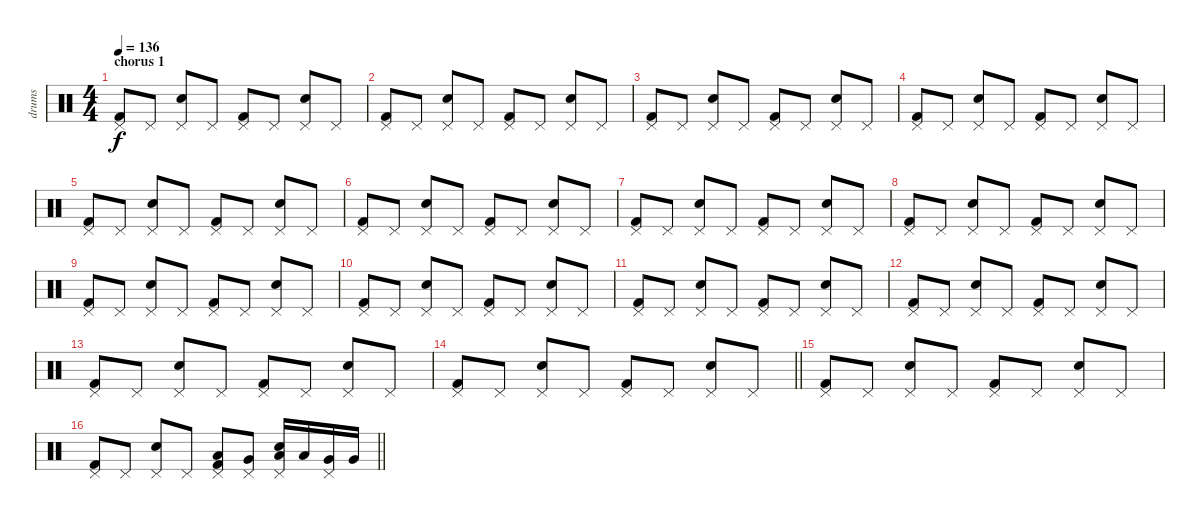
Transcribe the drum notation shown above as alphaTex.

\track ("drums" "drums") {instrument percussion}
\staff {score}
\articulation defaults
\ts (4 4)
\section ("" "chorus 1")
\tempo 136
\clef neutral
\ks c
("Kick (hit) 2" "Pedal Hi-Hat (hit)").8{dy f} "Pedal Hi-Hat (hit)".8 ("Electric Snare (hit)" "Pedal Hi-Hat (hit)").8 "Pedal Hi-Hat (hit)".8 ("Kick (hit) 2" "Pedal Hi-Hat (hit)").8 "Pedal Hi-Hat (hit)".8 ("Electric Snare (hit)" "Pedal Hi-Hat (hit)").8 "Pedal Hi-Hat (hit)".8 |
("Kick (hit) 2" "Pedal Hi-Hat (hit)").8 "Pedal Hi-Hat (hit)".8 ("Electric Snare (hit)" "Pedal Hi-Hat (hit)").8 "Pedal Hi-Hat (hit)".8 ("Kick (hit) 2" "Pedal Hi-Hat (hit)").8 "Pedal Hi-Hat (hit)".8 ("Electric Snare (hit)" "Pedal Hi-Hat (hit)").8 "Pedal Hi-Hat (hit)".8 |
("Kick (hit) 2" "Pedal Hi-Hat (hit)").8 "Pedal Hi-Hat (hit)".8 ("Electric Snare (hit)" "Pedal Hi-Hat (hit)").8 "Pedal Hi-Hat (hit)".8 ("Kick (hit) 2" "Pedal Hi-Hat (hit)").8 "Pedal Hi-Hat (hit)".8 ("Electric Snare (hit)" "Pedal Hi-Hat (hit)").8 "Pedal Hi-Hat (hit)".8 |
("Kick (hit) 2" "Pedal Hi-Hat (hit)").8 "Pedal Hi-Hat (hit)".8 ("Electric Snare (hit)" "Pedal Hi-Hat (hit)").8 "Pedal Hi-Hat (hit)".8 ("Kick (hit) 2" "Pedal Hi-Hat (hit)").8 "Pedal Hi-Hat (hit)".8 ("Electric Snare (hit)" "Pedal Hi-Hat (hit)").8 "Pedal Hi-Hat (hit)".8 |
("Kick (hit) 2" "Pedal Hi-Hat (hit)").8 "Pedal Hi-Hat (hit)".8 ("Electric Snare (hit)" "Pedal Hi-Hat (hit)").8 "Pedal Hi-Hat (hit)".8 ("Kick (hit) 2" "Pedal Hi-Hat (hit)").8 "Pedal Hi-Hat (hit)".8 ("Electric Snare (hit)" "Pedal Hi-Hat (hit)").8 "Pedal Hi-Hat (hit)".8 |
("Kick (hit) 2" "Pedal Hi-Hat (hit)").8 "Pedal Hi-Hat (hit)".8 ("Electric Snare (hit)" "Pedal Hi-Hat (hit)").8 "Pedal Hi-Hat (hit)".8 ("Kick (hit) 2" "Pedal Hi-Hat (hit)").8 "Pedal Hi-Hat (hit)".8 ("Electric Snare (hit)" "Pedal Hi-Hat (hit)").8 "Pedal Hi-Hat (hit)".8 |
("Kick (hit) 2" "Pedal Hi-Hat (hit)").8 "Pedal Hi-Hat (hit)".8 ("Electric Snare (hit)" "Pedal Hi-Hat (hit)").8 "Pedal Hi-Hat (hit)".8 ("Kick (hit) 2" "Pedal Hi-Hat (hit)").8 "Pedal Hi-Hat (hit)".8 ("Electric Snare (hit)" "Pedal Hi-Hat (hit)").8 "Pedal Hi-Hat (hit)".8 |
("Kick (hit) 2" "Pedal Hi-Hat (hit)").8 "Pedal Hi-Hat (hit)".8 ("Electric Snare (hit)" "Pedal Hi-Hat (hit)").8 "Pedal Hi-Hat (hit)".8 ("Kick (hit) 2" "Pedal Hi-Hat (hit)").8 "Pedal Hi-Hat (hit)".8 ("Electric Snare (hit)" "Pedal Hi-Hat (hit)").8 "Pedal Hi-Hat (hit)".8 |
("Kick (hit) 2" "Pedal Hi-Hat (hit)").8 "Pedal Hi-Hat (hit)".8 ("Electric Snare (hit)" "Pedal Hi-Hat (hit)").8 "Pedal Hi-Hat (hit)".8 ("Kick (hit) 2" "Pedal Hi-Hat (hit)").8 "Pedal Hi-Hat (hit)".8 ("Electric Snare (hit)" "Pedal Hi-Hat (hit)").8 "Pedal Hi-Hat (hit)".8 |
("Kick (hit) 2" "Pedal Hi-Hat (hit)").8 "Pedal Hi-Hat (hit)".8 ("Electric Snare (hit)" "Pedal Hi-Hat (hit)").8 "Pedal Hi-Hat (hit)".8 ("Kick (hit) 2" "Pedal Hi-Hat (hit)").8 "Pedal Hi-Hat (hit)".8 ("Electric Snare (hit)" "Pedal Hi-Hat (hit)").8 "Pedal Hi-Hat (hit)".8 |
("Kick (hit) 2" "Pedal Hi-Hat (hit)").8 "Pedal Hi-Hat (hit)".8 ("Electric Snare (hit)" "Pedal Hi-Hat (hit)").8 "Pedal Hi-Hat (hit)".8 ("Kick (hit) 2" "Pedal Hi-Hat (hit)").8 "Pedal Hi-Hat (hit)".8 ("Electric Snare (hit)" "Pedal Hi-Hat (hit)").8 "Pedal Hi-Hat (hit)".8 |
("Kick (hit) 2" "Pedal Hi-Hat (hit)").8 "Pedal Hi-Hat (hit)".8 ("Electric Snare (hit)" "Pedal Hi-Hat (hit)").8 "Pedal Hi-Hat (hit)".8 ("Kick (hit) 2" "Pedal Hi-Hat (hit)").8 "Pedal Hi-Hat (hit)".8 ("Electric Snare (hit)" "Pedal Hi-Hat (hit)").8 "Pedal Hi-Hat (hit)".8 |
("Kick (hit) 2" "Pedal Hi-Hat (hit)").8 "Pedal Hi-Hat (hit)".8 ("Electric Snare (hit)" "Pedal Hi-Hat (hit)").8 "Pedal Hi-Hat (hit)".8 ("Kick (hit) 2" "Pedal Hi-Hat (hit)").8 "Pedal Hi-Hat (hit)".8 ("Electric Snare (hit)" "Pedal Hi-Hat (hit)").8 "Pedal Hi-Hat (hit)".8 |
\barLineRight lightlight
("Kick (hit) 2" "Pedal Hi-Hat (hit)").8 "Pedal Hi-Hat (hit)".8 ("Electric Snare (hit)" "Pedal Hi-Hat (hit)").8 "Pedal Hi-Hat (hit)".8 ("Kick (hit) 2" "Pedal Hi-Hat (hit)").8 "Pedal Hi-Hat (hit)".8 ("Electric Snare (hit)" "Pedal Hi-Hat (hit)").8 "Pedal Hi-Hat (hit)".8 |
("Kick (hit) 2" "Pedal Hi-Hat (hit)").8 "Pedal Hi-Hat (hit)".8 ("Electric Snare (hit)" "Pedal Hi-Hat (hit)").8 "Pedal Hi-Hat (hit)".8 ("Kick (hit) 2" "Pedal Hi-Hat (hit)").8 "Pedal Hi-Hat (hit)".8 ("Electric Snare (hit)" "Pedal Hi-Hat (hit)").8 "Pedal Hi-Hat (hit)".8 |
\barLineRight lightlight
("Kick (hit) 2" "Pedal Hi-Hat (hit)").8 "Pedal Hi-Hat (hit)".8 ("Electric Snare (hit)" "Pedal Hi-Hat (hit)").8 "Pedal Hi-Hat (hit)".8 ("Kick (hit) 2" "Pedal Hi-Hat (hit)" "Low Tom (hit)").8 ("Pedal Hi-Hat (hit)" "Very Low Tom (hit)").8 ("Electric Snare (hit)" "Pedal Hi-Hat (hit)" "Low Tom (hit)").16 "Low Tom (hit)".16 ("Pedal Hi-Hat (hit)" "Very Low Tom (hit)").16 "Very Low Tom (hit)".16
